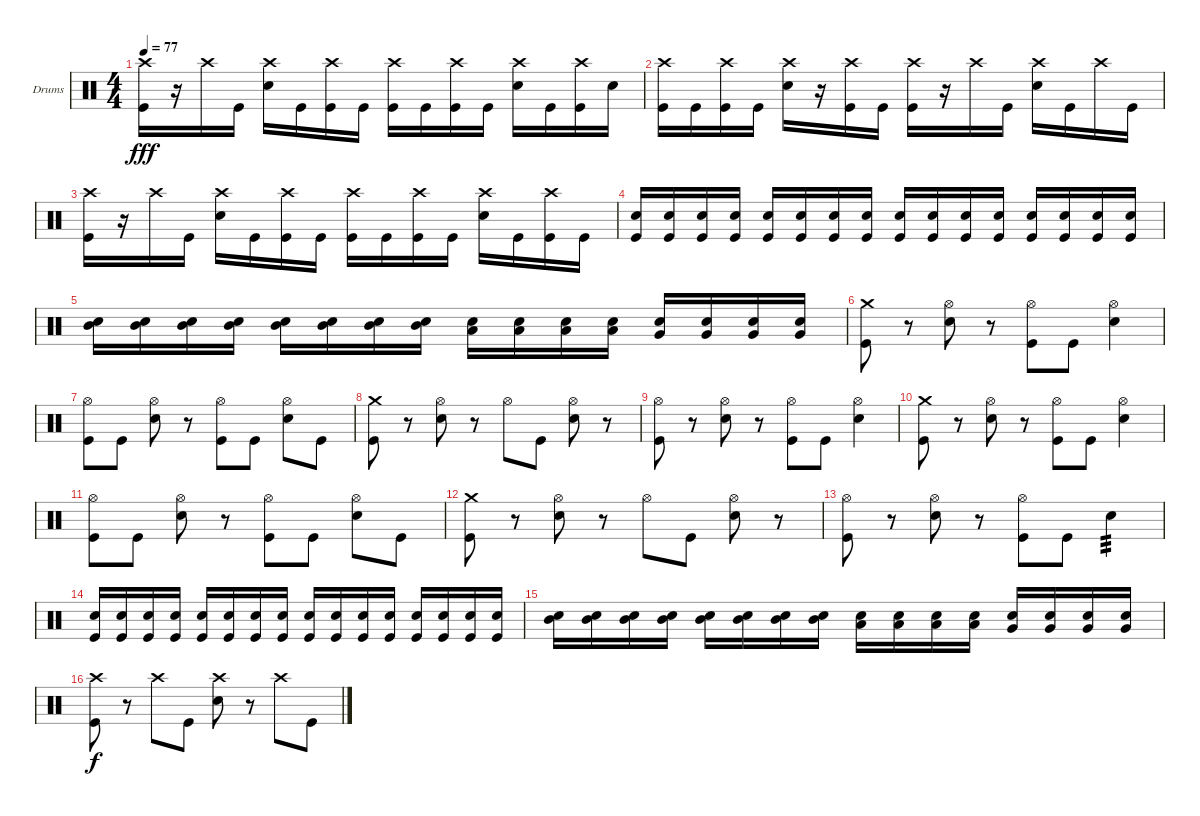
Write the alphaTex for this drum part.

\bracketExtendMode groupsimilarinstruments
\firstSystemTrackNameOrientation horizontal
\otherSystemsTrackNameOrientation horizontal
\track ("Drumkit" "Drums") {instrument percussion}
\staff {score}
\articulation defaults
\ts (4 4)
\tempo 77
\clef neutral
\ks c
("Crash high (hit)" "Kick (hit)").16{dy fff} r.16 "Crash high (hit)".16 "Kick (hit)".16 ("Crash high (hit)" "Snare (hit) 2").16 "Kick (hit)".16 ("Crash high (hit)" "Kick (hit)").16 "Kick (hit)".16 ("Crash high (hit)" "Kick (hit)").16 "Kick (hit)".16 ("Crash high (hit)" "Kick (hit)").16 "Kick (hit)".16 ("Crash high (hit)" "Snare (hit) 2").16 "Kick (hit)".16 ("Crash high (hit)" "Kick (hit)").16 "Snare (hit) 2".16 |
("Crash high (hit)" "Kick (hit)").16 "Kick (hit)".16 ("Crash high (hit)" "Kick (hit)").16 "Kick (hit)".16 ("Crash high (hit)" "Snare (hit) 2").16 r.16 ("Crash high (hit)" "Kick (hit)").16 "Kick (hit)".16 ("Crash high (hit)" "Kick (hit)").16 r.16 "Crash high (hit)".16 "Kick (hit)".16 ("Crash high (hit)" "Snare (hit) 2").16 "Kick (hit)".16 "Crash high (hit)".16 "Kick (hit)".16 |
("Crash high (hit)" "Kick (hit)").16 r.16 "Crash high (hit)".16 "Kick (hit)".16 ("Crash high (hit)" "Snare (hit) 2").16 "Kick (hit)".16 ("Crash high (hit)" "Kick (hit)").16 "Kick (hit)".16 ("Crash high (hit)" "Kick (hit)").16 "Kick (hit)".16 ("Crash high (hit)" "Kick (hit)").16 "Kick (hit)".16 ("Crash high (hit)" "Snare (hit) 2").16 "Kick (hit)".16 ("Crash high (hit)" "Kick (hit)").16 "Kick (hit)".16 |
("Kick (hit)" "Snare (hit) 2").16 ("Kick (hit)" "Snare (hit) 2").16 ("Kick (hit)" "Snare (hit) 2").16 ("Kick (hit)" "Snare (hit) 2").16 ("Kick (hit)" "Snare (hit) 2").16 ("Kick (hit)" "Snare (hit) 2").16 ("Kick (hit)" "Snare (hit) 2").16 ("Kick (hit)" "Snare (hit) 2").16 ("Kick (hit)" "Snare (hit) 2").16 ("Kick (hit)" "Snare (hit) 2").16 ("Kick (hit)" "Snare (hit) 2").16 ("Kick (hit)" "Snare (hit) 2").16 ("Kick (hit)" "Snare (hit) 2").16 ("Kick (hit)" "Snare (hit) 2").16 ("Kick (hit)" "Snare (hit) 2").16 ("Kick (hit)" "Snare (hit) 2").16 |
("Snare (hit) 2" "Mid Tom (hit)").16 ("Snare (hit) 2" "Mid Tom (hit)").16 ("Snare (hit) 2" "Mid Tom (hit)").16 ("Snare (hit) 2" "Mid Tom (hit)").16 ("Snare (hit) 2" "Mid Tom (hit)").16 ("Snare (hit) 2" "Mid Tom (hit)").16 ("Snare (hit) 2" "Mid Tom (hit)").16 ("Snare (hit) 2" "Mid Tom (hit)").16 ("Low Tom (hit)" "Snare (hit) 2").16 ("Low Tom (hit)" "Snare (hit) 2").16 ("Low Tom (hit)" "Snare (hit) 2").16 ("Low Tom (hit)" "Snare (hit) 2").16 ("Very Low Tom (hit)" "Snare (hit) 2").16 ("Very Low Tom (hit)" "Snare (hit) 2").16 ("Very Low Tom (hit)" "Snare (hit) 2").16 ("Very Low Tom (hit)" "Snare (hit) 2").16 |
("Crash medium (hit)" "Kick (hit)").8 r.8 ("Hi-Hat (open)" "Snare (hit) 2").8 r.8 ("Hi-Hat (open)" "Kick (hit)").8 "Kick (hit)".8 ("Hi-Hat (open)" "Snare (hit) 2").4 |
("Hi-Hat (open)" "Kick (hit)").8 "Kick (hit)".8 ("Hi-Hat (open)" "Snare (hit) 2").8 r.8 ("Hi-Hat (open)" "Kick (hit)").8 "Kick (hit)".8 ("Hi-Hat (open)" "Snare (hit) 2").8 "Kick (hit)".8 |
("Crash medium (hit)" "Kick (hit)").8 r.8 ("Hi-Hat (open)" "Snare (hit) 2").8 r.8 "Hi-Hat (open)".8 "Kick (hit)".8 ("Hi-Hat (open)" "Snare (hit) 2").8 r.8 |
("Hi-Hat (open)" "Kick (hit)").8 r.8 ("Hi-Hat (open)" "Snare (hit) 2").8 r.8 ("Hi-Hat (open)" "Kick (hit)").8 "Kick (hit)".8 ("Hi-Hat (open)" "Snare (hit) 2").4 |
("Crash medium (hit)" "Kick (hit)").8 r.8 ("Hi-Hat (open)" "Snare (hit) 2").8 r.8 ("Hi-Hat (open)" "Kick (hit)").8 "Kick (hit)".8 ("Hi-Hat (open)" "Snare (hit) 2").4 |
("Hi-Hat (open)" "Kick (hit)").8 "Kick (hit)".8 ("Hi-Hat (open)" "Snare (hit) 2").8 r.8 ("Hi-Hat (open)" "Kick (hit)").8 "Kick (hit)".8 ("Hi-Hat (open)" "Snare (hit) 2").8 "Kick (hit)".8 |
("Crash medium (hit)" "Kick (hit)").8 r.8 ("Hi-Hat (open)" "Snare (hit) 2").8 r.8 "Hi-Hat (open)".8 "Kick (hit)".8 ("Hi-Hat (open)" "Snare (hit) 2").8 r.8 |
("Hi-Hat (open)" "Kick (hit)").8 r.8 ("Hi-Hat (open)" "Snare (hit) 2").8 r.8 ("Hi-Hat (open)" "Kick (hit)").8 "Kick (hit)".8 "Snare (hit) 2".4{tp 3} |
("Kick (hit)" "Snare (hit) 2").16 ("Kick (hit)" "Snare (hit) 2").16 ("Kick (hit)" "Snare (hit) 2").16 ("Kick (hit)" "Snare (hit) 2").16 ("Kick (hit)" "Snare (hit) 2").16 ("Kick (hit)" "Snare (hit) 2").16 ("Kick (hit)" "Snare (hit) 2").16 ("Kick (hit)" "Snare (hit) 2").16 ("Kick (hit)" "Snare (hit) 2").16 ("Kick (hit)" "Snare (hit) 2").16 ("Kick (hit)" "Snare (hit) 2").16 ("Kick (hit)" "Snare (hit) 2").16 ("Kick (hit)" "Snare (hit) 2").16 ("Kick (hit)" "Snare (hit) 2").16 ("Kick (hit)" "Snare (hit) 2").16 ("Kick (hit)" "Snare (hit) 2").16 |
("Snare (hit) 2" "Mid Tom (hit)").16 ("Snare (hit) 2" "Mid Tom (hit)").16 ("Snare (hit) 2" "Mid Tom (hit)").16 ("Snare (hit) 2" "Mid Tom (hit)").16 ("Snare (hit) 2" "Mid Tom (hit)").16 ("Snare (hit) 2" "Mid Tom (hit)").16 ("Snare (hit) 2" "Mid Tom (hit)").16 ("Snare (hit) 2" "Mid Tom (hit)").16 ("Low Tom (hit)" "Snare (hit) 2").16 ("Low Tom (hit)" "Snare (hit) 2").16 ("Low Tom (hit)" "Snare (hit) 2").16 ("Low Tom (hit)" "Snare (hit) 2").16 ("Very Low Tom (hit)" "Snare (hit) 2").16 ("Very Low Tom (hit)" "Snare (hit) 2").16 ("Very Low Tom (hit)" "Snare (hit) 2").16 ("Very Low Tom (hit)" "Snare (hit) 2").16 |
("Crash high (hit)" "Kick (hit)").8{dy f} r.8 "Crash high (hit)".8 "Kick (hit)".8 ("Crash high (hit)" "Snare (hit) 2").8 r.8 "Crash high (hit)".8 "Kick (hit)".8
